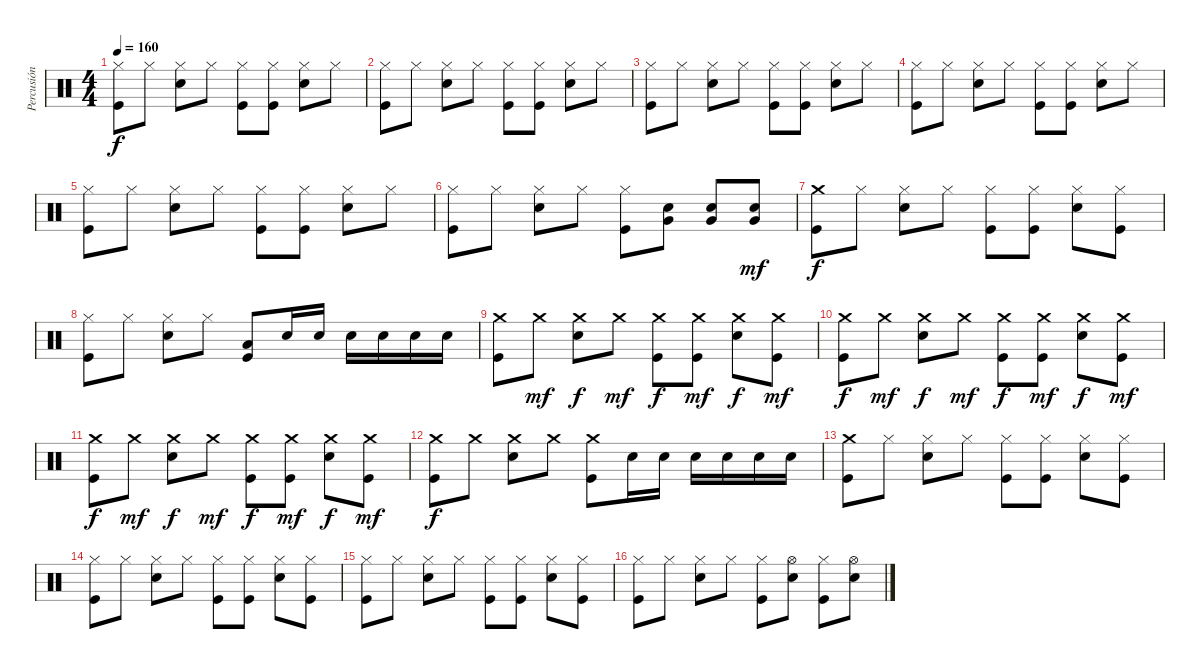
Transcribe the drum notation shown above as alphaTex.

\track ("Percusión" "Percusión") {instrument percussion}
\staff {score}
\articulation defaults
\ts (4 4)
\tempo 160
\clef neutral
\ks c
("Hi-Hat (closed)" "Kick (hit)").8{dy f} "Hi-Hat (closed)".8 ("Hi-Hat (closed)" "Electric Snare (hit)").8 "Hi-Hat (closed)".8 ("Hi-Hat (closed)" "Kick (hit)").8 ("Hi-Hat (closed)" "Kick (hit)").8 ("Hi-Hat (closed)" "Electric Snare (hit)").8 "Hi-Hat (closed)".8 |
("Hi-Hat (closed)" "Kick (hit)").8 "Hi-Hat (closed)".8 ("Hi-Hat (closed)" "Electric Snare (hit)").8 "Hi-Hat (closed)".8 ("Hi-Hat (closed)" "Kick (hit)").8 ("Hi-Hat (closed)" "Kick (hit)").8 ("Hi-Hat (closed)" "Electric Snare (hit)").8 "Hi-Hat (closed)".8 |
("Hi-Hat (closed)" "Kick (hit)").8 "Hi-Hat (closed)".8 ("Hi-Hat (closed)" "Electric Snare (hit)").8 "Hi-Hat (closed)".8 ("Hi-Hat (closed)" "Kick (hit)").8 ("Hi-Hat (closed)" "Kick (hit)").8 ("Hi-Hat (closed)" "Electric Snare (hit)").8 "Hi-Hat (closed)".8 |
("Hi-Hat (closed)" "Kick (hit)").8 "Hi-Hat (closed)".8 ("Hi-Hat (closed)" "Electric Snare (hit)").8 "Hi-Hat (closed)".8 ("Hi-Hat (closed)" "Kick (hit)").8 ("Hi-Hat (closed)" "Kick (hit)").8 ("Hi-Hat (closed)" "Electric Snare (hit)").8 "Hi-Hat (closed)".8 |
("Hi-Hat (closed)" "Kick (hit)").8 "Hi-Hat (closed)".8 ("Hi-Hat (closed)" "Electric Snare (hit)").8 "Hi-Hat (closed)".8 ("Hi-Hat (closed)" "Kick (hit)").8 ("Hi-Hat (closed)" "Kick (hit)").8 ("Hi-Hat (closed)" "Electric Snare (hit)").8 "Hi-Hat (closed)".8 |
("Hi-Hat (closed)" "Kick (hit)").8 "Hi-Hat (closed)".8 ("Hi-Hat (closed)" "Electric Snare (hit)").8 "Hi-Hat (closed)".8 ("Hi-Hat (closed)" "Kick (hit)").8 ("Very Low Tom (hit)" "Electric Snare (hit)").8 ("Very Low Tom (hit)" "Electric Snare (hit)").8 ("Very Low Tom (hit)" "Electric Snare (hit)").8{dy mf} |
("Crash medium (hit)" "Kick (hit)").8{dy f} "Hi-Hat (closed)".8 ("Hi-Hat (closed)" "Electric Snare (hit)").8 "Hi-Hat (closed)".8 ("Hi-Hat (closed)" "Kick (hit)").8 ("Hi-Hat (closed)" "Kick (hit)").8 ("Hi-Hat (closed)" "Electric Snare (hit)").8 ("Hi-Hat (closed)" "Kick (hit)").8 |
("Hi-Hat (closed)" "Kick (hit)").8 "Hi-Hat (closed)".8 ("Hi-Hat (closed)" "Electric Snare (hit)").8 "Hi-Hat (closed)".8 ("Low Tom (hit)" "Kick (hit)").8 "Electric Snare (hit)".16 "Electric Snare (hit)".16 "Electric Snare (hit)".16 "Electric Snare (hit)".16 "Electric Snare (hit)".16 "Electric Snare (hit)".16 |
("Crash medium (hit)" "Kick (hit)").8 "Crash medium (hit)".8{dy mf} ("Crash medium (hit)" "Electric Snare (hit)").8{dy f} "Crash medium (hit)".8{dy mf} ("Crash medium (hit)" "Kick (hit)").8{dy f} ("Crash medium (hit)" "Kick (hit)").8{dy mf} ("Crash medium (hit)" "Electric Snare (hit)").8{dy f} ("Crash medium (hit)" "Kick (hit)").8{dy mf} |
("Crash medium (hit)" "Kick (hit)").8{dy f} "Crash medium (hit)".8{dy mf} ("Crash medium (hit)" "Electric Snare (hit)").8{dy f} "Crash medium (hit)".8{dy mf} ("Crash medium (hit)" "Kick (hit)").8{dy f} ("Crash medium (hit)" "Kick (hit)").8{dy mf} ("Crash medium (hit)" "Electric Snare (hit)").8{dy f} ("Crash medium (hit)" "Kick (hit)").8{dy mf} |
("Crash medium (hit)" "Kick (hit)").8{dy f} "Crash medium (hit)".8{dy mf} ("Crash medium (hit)" "Electric Snare (hit)").8{dy f} "Crash medium (hit)".8{dy mf} ("Crash medium (hit)" "Kick (hit)").8{dy f} ("Crash medium (hit)" "Kick (hit)").8{dy mf} ("Crash medium (hit)" "Electric Snare (hit)").8{dy f} ("Crash medium (hit)" "Kick (hit)").8{dy mf} |
("Crash medium (hit)" "Kick (hit)").8{dy f} "Crash medium (hit)".8 ("Crash medium (hit)" "Electric Snare (hit)").8 "Crash medium (hit)".8 ("Crash medium (hit)" "Kick (hit)").8 "Electric Snare (hit)".16 "Electric Snare (hit)".16 "Electric Snare (hit)".16 "Electric Snare (hit)".16 "Electric Snare (hit)".16 "Electric Snare (hit)".16 |
("Crash medium (hit)" "Kick (hit)").8 "Hi-Hat (closed)".8 ("Hi-Hat (closed)" "Electric Snare (hit)").8 "Hi-Hat (closed)".8 ("Hi-Hat (closed)" "Kick (hit)").8 ("Hi-Hat (closed)" "Kick (hit)").8 ("Hi-Hat (closed)" "Electric Snare (hit)").8 ("Hi-Hat (closed)" "Kick (hit)").8 |
("Hi-Hat (closed)" "Kick (hit)").8 "Hi-Hat (closed)".8 ("Hi-Hat (closed)" "Electric Snare (hit)").8 "Hi-Hat (closed)".8 ("Hi-Hat (closed)" "Kick (hit)").8 ("Hi-Hat (closed)" "Kick (hit)").8 ("Hi-Hat (closed)" "Electric Snare (hit)").8 ("Hi-Hat (closed)" "Kick (hit)").8 |
("Hi-Hat (closed)" "Kick (hit)").8 "Hi-Hat (closed)".8 ("Hi-Hat (closed)" "Electric Snare (hit)").8 "Hi-Hat (closed)".8 ("Hi-Hat (closed)" "Kick (hit)").8 ("Hi-Hat (closed)" "Kick (hit)").8 ("Hi-Hat (closed)" "Electric Snare (hit)").8 ("Hi-Hat (closed)" "Kick (hit)").8 |
("Hi-Hat (closed)" "Kick (hit)").8 "Hi-Hat (closed)".8 ("Hi-Hat (closed)" "Electric Snare (hit)").8 "Hi-Hat (closed)".8 ("Hi-Hat (closed)" "Kick (hit)").8 ("Hi-Hat (open)" "Electric Snare (hit)").8 ("Hi-Hat (closed)" "Kick (hit)").8 ("Hi-Hat (open)" "Electric Snare (hit)").8
